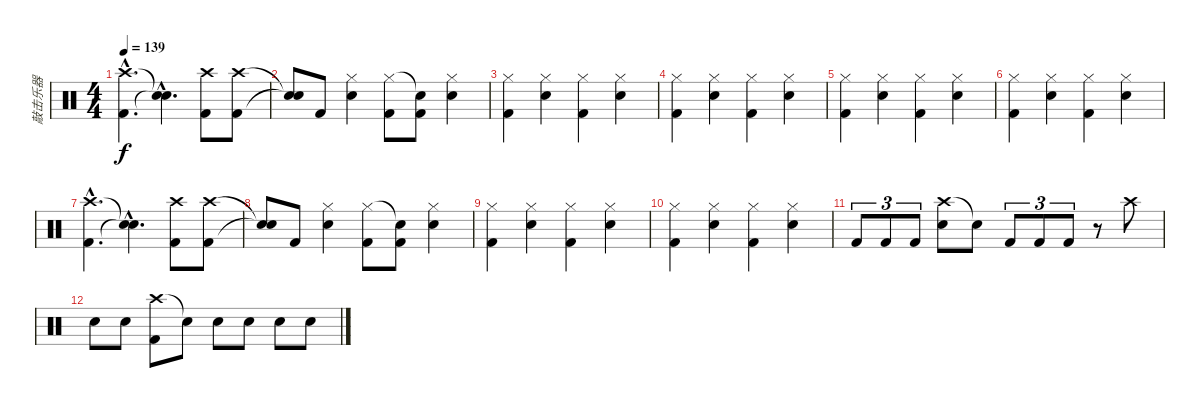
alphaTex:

\track ("敲击乐器" "敲击乐器") {instrument percussion}
\staff {score}
\articulation defaults
\ts (4 4)
\tempo 139
\clef neutral
\ks c
("Crash high (hit)"{hac} "Kick (hit) 2"{hac}).4{d dy f} ("Snare (hit)"{hac t} "Snare (hit)"{hac t}).4{d} ("Crash high (hit)" "Kick (hit) 2").8 ("Crash high (hit)" "Kick (hit) 2").8 |
("Snare (hit)"{t} "Snare (hit)"{t}).8 "Kick (hit) 2".8 ("Hi-Hat (closed)" "Snare (hit) 2").4 ("Hi-Hat (closed)" "Kick (hit) 2").8 ("Snare (hit)"{t} "Kick (hit) 2").8 ("Hi-Hat (closed)" "Snare (hit) 2").4 |
("Hi-Hat (closed)" "Kick (hit) 2").4 ("Hi-Hat (closed)" "Snare (hit) 2").4 ("Hi-Hat (closed)" "Kick (hit) 2").4 ("Hi-Hat (closed)" "Snare (hit) 2").4 |
("Hi-Hat (closed)" "Kick (hit) 2").4 ("Hi-Hat (closed)" "Snare (hit) 2").4 ("Hi-Hat (closed)" "Kick (hit) 2").4 ("Hi-Hat (closed)" "Snare (hit) 2").4 |
("Hi-Hat (closed)" "Kick (hit) 2").4 ("Hi-Hat (closed)" "Snare (hit) 2").4 ("Hi-Hat (closed)" "Kick (hit) 2").4 ("Hi-Hat (closed)" "Snare (hit) 2").4 |
("Hi-Hat (closed)" "Kick (hit) 2").4 ("Hi-Hat (closed)" "Snare (hit) 2").4 ("Hi-Hat (closed)" "Kick (hit) 2").4 ("Hi-Hat (closed)" "Snare (hit) 2").4 |
("Crash high (hit)"{hac} "Kick (hit) 2"{hac}).4{d} ("Snare (hit)"{hac t} "Snare (hit)"{hac t}).4{d} ("Crash high (hit)" "Kick (hit) 2").8 ("Crash high (hit)" "Kick (hit) 2").8 |
("Snare (hit)"{t} "Snare (hit)"{t}).8 "Kick (hit) 2".8 ("Hi-Hat (closed)" "Snare (hit) 2").4 ("Hi-Hat (closed)" "Kick (hit) 2").8 ("Snare (hit)"{t} "Kick (hit) 2").8 ("Hi-Hat (closed)" "Snare (hit) 2").4 |
("Hi-Hat (closed)" "Kick (hit) 2").4 ("Hi-Hat (closed)" "Snare (hit) 2").4 ("Hi-Hat (closed)" "Kick (hit) 2").4 ("Hi-Hat (closed)" "Snare (hit) 2").4 |
("Hi-Hat (closed)" "Kick (hit) 2").4 ("Hi-Hat (closed)" "Snare (hit) 2").4 ("Hi-Hat (closed)" "Kick (hit) 2").4 ("Hi-Hat (closed)" "Snare (hit) 2").4 |
"Kick (hit) 2".8{tu (3 2)} "Kick (hit) 2".8{tu (3 2)} "Kick (hit) 2".8{tu (3 2)} ("Crash high (hit)" "Snare (hit) 2").8 "Snare (hit)"{t}.8 "Kick (hit) 2".8{tu (3 2)} "Kick (hit) 2".8{tu (3 2)} "Kick (hit) 2".8{tu (3 2)} r.8 "Crash high (hit)".8 |
"Snare (hit) 2".8 "Snare (hit) 2".8 ("Crash high (hit)" "Kick (hit) 2").8 "Snare (hit)"{t}.8 "Snare (hit) 2".8 "Snare (hit) 2".8 "Snare (hit) 2".8 "Snare (hit) 2".8
